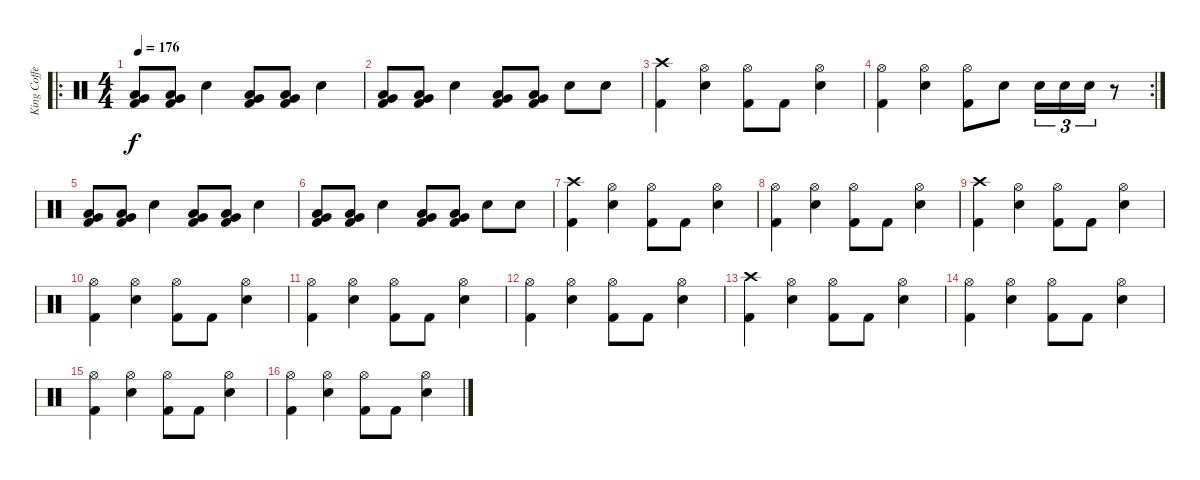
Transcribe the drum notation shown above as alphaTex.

\track ("King Coffey" "King Coffe") {instrument percussion}
\staff {score}
\articulation defaults
\ro
\ts (4 4)
\tempo 176
\clef neutral
\ks c
("Very Low Tom (hit)" "Low Tom (hit)" "Kick (hit) 2").8{dy f} ("Very Low Tom (hit)" "Low Tom (hit)" "Kick (hit) 2").8 "Snare (hit) 2".4 ("Very Low Tom (hit)" "Low Tom (hit)" "Kick (hit) 2").8 ("Very Low Tom (hit)" "Low Tom (hit)" "Kick (hit) 2").8 "Snare (hit) 2".4 |
("Very Low Tom (hit)" "Low Tom (hit)" "Kick (hit) 2").8 ("Very Low Tom (hit)" "Low Tom (hit)" "Kick (hit) 2").8 "Snare (hit) 2".4 ("Very Low Tom (hit)" "Low Tom (hit)" "Kick (hit) 2").8 ("Very Low Tom (hit)" "Low Tom (hit)" "Kick (hit) 2").8 "Snare (hit) 2".8 "Snare (hit) 2".8 |
("Crash high (hit)" "Kick (hit) 2").4 ("Hi-Hat (open)" "Snare (hit) 2").4 ("Hi-Hat (open)" "Kick (hit) 2").8 "Kick (hit) 2".8 ("Hi-Hat (open)" "Snare (hit) 2").4 |
\rc 2
("Hi-Hat (open)" "Kick (hit) 2").4 ("Hi-Hat (open)" "Snare (hit) 2").4 ("Hi-Hat (open)" "Kick (hit) 2").8 "Snare (hit) 2".8 "Snare (hit) 2".16{tu (3 2)} "Snare (hit) 2".16{tu (3 2)} "Snare (hit) 2".16{tu (3 2)} r.8 |
("Very Low Tom (hit)" "Low Tom (hit)" "Kick (hit) 2").8 ("Very Low Tom (hit)" "Low Tom (hit)" "Kick (hit) 2").8 "Snare (hit) 2".4 ("Very Low Tom (hit)" "Low Tom (hit)" "Kick (hit) 2").8 ("Very Low Tom (hit)" "Low Tom (hit)" "Kick (hit) 2").8 "Snare (hit) 2".4 |
("Very Low Tom (hit)" "Low Tom (hit)" "Kick (hit) 2").8 ("Very Low Tom (hit)" "Low Tom (hit)" "Kick (hit) 2").8 "Snare (hit) 2".4 ("Very Low Tom (hit)" "Low Tom (hit)" "Kick (hit) 2").8 ("Very Low Tom (hit)" "Low Tom (hit)" "Kick (hit) 2").8 "Snare (hit) 2".8 "Snare (hit) 2".8 |
("Crash high (hit)" "Kick (hit) 2").4 ("Hi-Hat (open)" "Snare (hit) 2").4 ("Hi-Hat (open)" "Kick (hit) 2").8 "Kick (hit) 2".8 ("Hi-Hat (open)" "Snare (hit) 2").4 |
("Hi-Hat (open)" "Kick (hit) 2").4 ("Hi-Hat (open)" "Snare (hit) 2").4 ("Hi-Hat (open)" "Kick (hit) 2").8 "Kick (hit) 2".8 ("Hi-Hat (open)" "Snare (hit) 2").4 |
("Crash high (hit)" "Kick (hit) 2").4 ("Hi-Hat (open)" "Snare (hit) 2").4 ("Hi-Hat (open)" "Kick (hit) 2").8 "Kick (hit) 2".8 ("Hi-Hat (open)" "Snare (hit) 2").4 |
("Hi-Hat (open)" "Kick (hit) 2").4 ("Hi-Hat (open)" "Snare (hit) 2").4 ("Hi-Hat (open)" "Kick (hit) 2").8 "Kick (hit) 2".8 ("Hi-Hat (open)" "Snare (hit) 2").4 |
("Hi-Hat (open)" "Kick (hit) 2").4 ("Hi-Hat (open)" "Snare (hit) 2").4 ("Hi-Hat (open)" "Kick (hit) 2").8 "Kick (hit) 2".8 ("Hi-Hat (open)" "Snare (hit) 2").4 |
("Hi-Hat (open)" "Kick (hit) 2").4 ("Hi-Hat (open)" "Snare (hit) 2").4 ("Hi-Hat (open)" "Kick (hit) 2").8 "Kick (hit) 2".8 ("Hi-Hat (open)" "Snare (hit) 2").4 |
("Crash high (hit)" "Kick (hit) 2").4 ("Hi-Hat (open)" "Snare (hit) 2").4 ("Hi-Hat (open)" "Kick (hit) 2").8 "Kick (hit) 2".8 ("Hi-Hat (open)" "Snare (hit) 2").4 |
("Hi-Hat (open)" "Kick (hit) 2").4 ("Hi-Hat (open)" "Snare (hit) 2").4 ("Hi-Hat (open)" "Kick (hit) 2").8 "Kick (hit) 2".8 ("Hi-Hat (open)" "Snare (hit) 2").4 |
("Hi-Hat (open)" "Kick (hit) 2").4 ("Hi-Hat (open)" "Snare (hit) 2").4 ("Hi-Hat (open)" "Kick (hit) 2").8 "Kick (hit) 2".8 ("Hi-Hat (open)" "Snare (hit) 2").4 |
("Hi-Hat (open)" "Kick (hit) 2").4 ("Hi-Hat (open)" "Snare (hit) 2").4 ("Hi-Hat (open)" "Kick (hit) 2").8 "Kick (hit) 2".8 ("Hi-Hat (open)" "Snare (hit) 2").4
